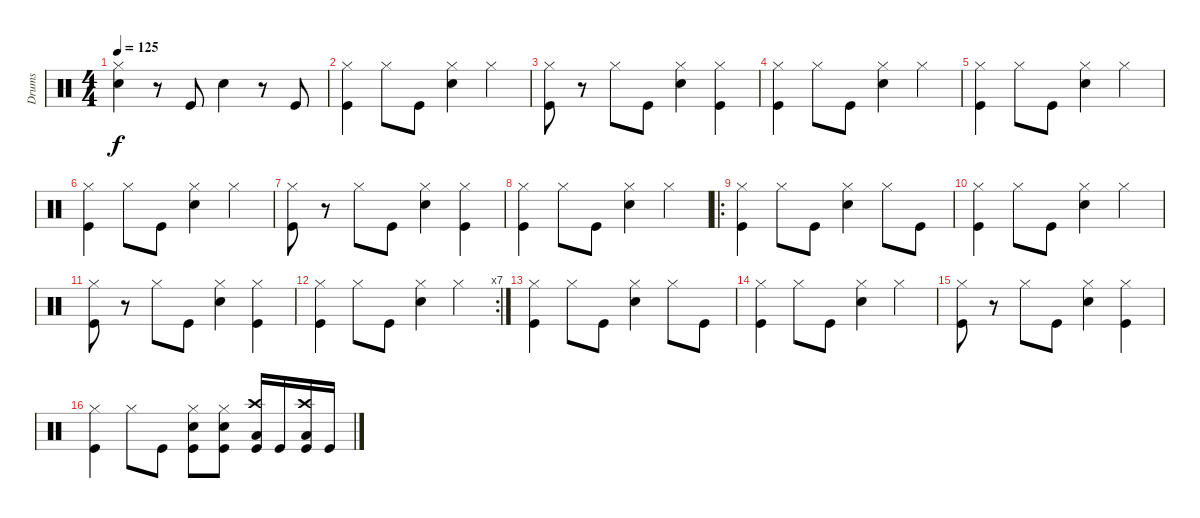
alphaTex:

\track ("Drums" "Drums") {instrument percussion}
\staff {score}
\articulation defaults
\ts (4 4)
\tempo 125
\clef neutral
\ks c
("Hi-Hat (closed)" "Snare (hit) 2").4{dy f} r.8 "Kick (hit)".8 "Snare (hit) 2".4 r.8 "Kick (hit)".8 |
("Hi-Hat (closed)" "Kick (hit)").4 "Hi-Hat (closed)".8 "Kick (hit)".8 ("Hi-Hat (closed)" "Snare (hit) 2").4 "Hi-Hat (closed)".4 |
("Hi-Hat (closed)" "Kick (hit)").8 r.8 "Hi-Hat (closed)".8 "Kick (hit)".8 ("Hi-Hat (closed)" "Snare (hit) 2").4 ("Hi-Hat (closed)" "Kick (hit)").4 |
("Hi-Hat (closed)" "Kick (hit)").4 "Hi-Hat (closed)".8 "Kick (hit)".8 ("Hi-Hat (closed)" "Snare (hit) 2").4 "Hi-Hat (closed)".4 |
("Hi-Hat (closed)" "Kick (hit)").4 "Hi-Hat (closed)".8 "Kick (hit)".8 ("Hi-Hat (closed)" "Snare (hit) 2").4 "Hi-Hat (closed)".4 |
("Hi-Hat (closed)" "Kick (hit)").4 "Hi-Hat (closed)".8 "Kick (hit)".8 ("Hi-Hat (closed)" "Snare (hit) 2").4 "Hi-Hat (closed)".4 |
("Hi-Hat (closed)" "Kick (hit)").8 r.8 "Hi-Hat (closed)".8 "Kick (hit)".8 ("Hi-Hat (closed)" "Snare (hit) 2").4 ("Hi-Hat (closed)" "Kick (hit)").4 |
("Hi-Hat (closed)" "Kick (hit)").4 "Hi-Hat (closed)".8 "Kick (hit)".8 ("Hi-Hat (closed)" "Snare (hit) 2").4 "Hi-Hat (closed)".4 |
\ro
("Hi-Hat (closed)" "Kick (hit)").4 "Hi-Hat (closed)".8 "Kick (hit)".8 ("Hi-Hat (closed)" "Snare (hit) 2").4 "Hi-Hat (closed)".8 "Kick (hit)".8 |
("Hi-Hat (closed)" "Kick (hit)").4 "Hi-Hat (closed)".8 "Kick (hit)".8 ("Hi-Hat (closed)" "Snare (hit) 2").4 "Hi-Hat (closed)".4 |
("Hi-Hat (closed)" "Kick (hit)").8 r.8 "Hi-Hat (closed)".8 "Kick (hit)".8 ("Hi-Hat (closed)" "Snare (hit) 2").4 ("Hi-Hat (closed)" "Kick (hit)").4 |
\rc 7
("Hi-Hat (closed)" "Kick (hit)").4 "Hi-Hat (closed)".8 "Kick (hit)".8 ("Hi-Hat (closed)" "Snare (hit) 2").4 "Hi-Hat (closed)".4 |
("Hi-Hat (closed)" "Kick (hit)").4 "Hi-Hat (closed)".8 "Kick (hit)".8 ("Hi-Hat (closed)" "Snare (hit) 2").4 "Hi-Hat (closed)".8 "Kick (hit)".8 |
("Hi-Hat (closed)" "Kick (hit)").4 "Hi-Hat (closed)".8 "Kick (hit)".8 ("Hi-Hat (closed)" "Snare (hit) 2").4 "Hi-Hat (closed)".4 |
("Hi-Hat (closed)" "Kick (hit)").8 r.8 "Hi-Hat (closed)".8 "Kick (hit)".8 ("Hi-Hat (closed)" "Snare (hit) 2").4 ("Hi-Hat (closed)" "Kick (hit)").4 |
("Hi-Hat (closed)" "Kick (hit)").4 "Hi-Hat (closed)".8 "Kick (hit)".8 ("Hi-Hat (closed)" "Snare (hit) 2" "Kick (hit)").8 ("Hi-Hat (closed)" "Snare (hit) 2" "Kick (hit)").8 ("Crash high (hit)" "Low Floor Tom (hit)" "Kick (hit)").16 "Kick (hit)".16 ("Crash high (hit)" "Low Floor Tom (hit)" "Kick (hit)").16 "Kick (hit)".16
